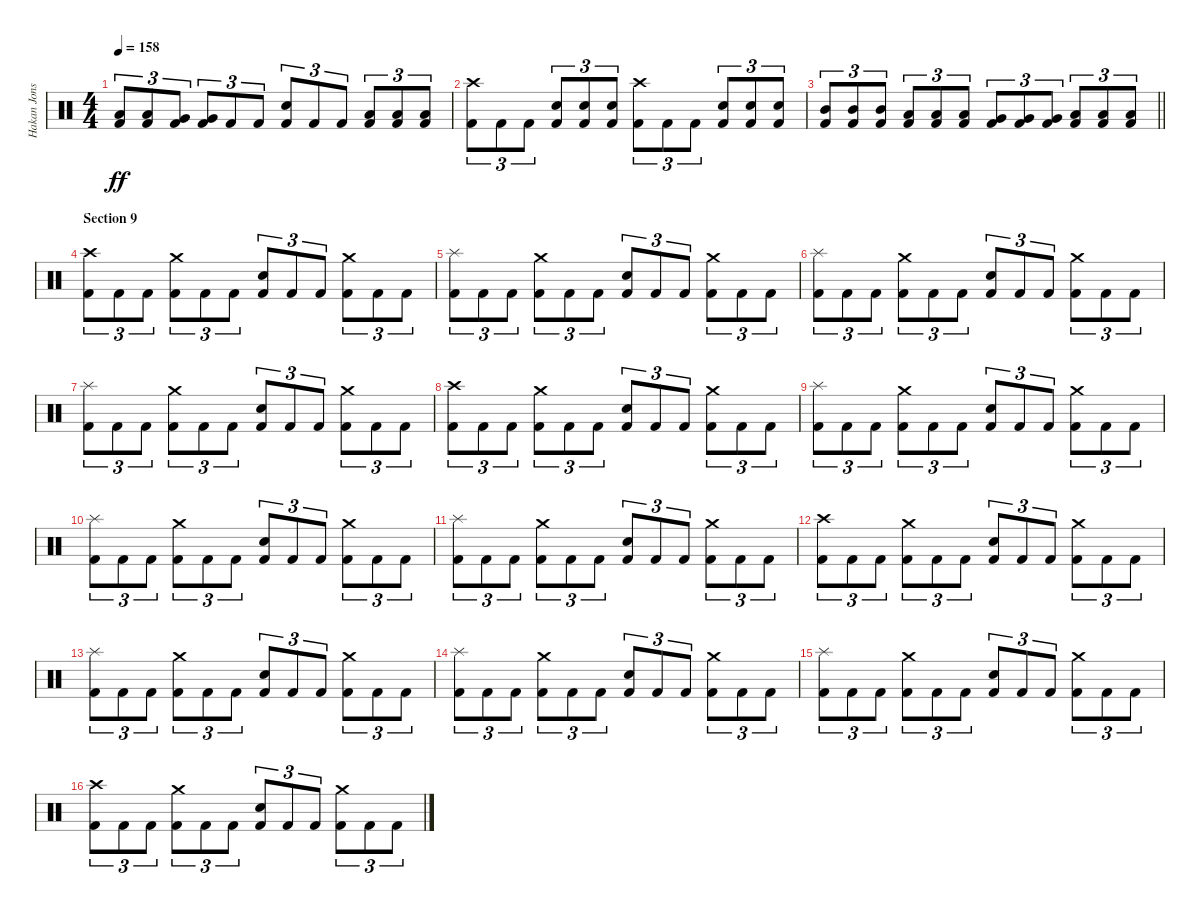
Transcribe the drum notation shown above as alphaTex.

\track ("Hakan Jonsson" "Hakan Jons") {instrument percussion}
\staff {score}
\articulation defaults
\ts (4 4)
\tempo 158
\clef neutral
\ks c
("Low Tom (hit)" "Kick (hit) 2").8{tu (3 2) dy ff} ("Low Tom (hit)" "Kick (hit) 2").8{tu (3 2)} ("Very Low Tom (hit)" "Kick (hit) 2").8{tu (3 2)} ("Very Low Tom (hit)" "Kick (hit) 2").8{tu (3 2)} "Kick (hit) 2".8{tu (3 2)} "Kick (hit) 2".8{tu (3 2)} ("Electric Snare (hit)" "Kick (hit) 2").8{tu (3 2)} "Kick (hit) 2".8{tu (3 2)} "Kick (hit) 2".8{tu (3 2)} ("Low Tom (hit)" "Kick (hit) 2").8{tu (3 2)} ("Low Tom (hit)" "Kick (hit) 2").8{tu (3 2)} ("Low Tom (hit)" "Kick (hit) 2").8{tu (3 2)} |
("Crash high (hit)" "Kick (hit) 2").8{tu (3 2)} "Kick (hit) 2".8{tu (3 2)} "Kick (hit) 2".8{tu (3 2)} ("Electric Snare (hit)" "Kick (hit) 2").8{tu (3 2)} ("Electric Snare (hit)" "Kick (hit) 2").8{tu (3 2)} ("Electric Snare (hit)" "Kick (hit) 2").8{tu (3 2)} ("Crash high (hit)" "Kick (hit) 2").8{tu (3 2)} "Kick (hit) 2".8{tu (3 2)} "Kick (hit) 2".8{tu (3 2)} ("Electric Snare (hit)" "Kick (hit) 2").8{tu (3 2)} ("Electric Snare (hit)" "Kick (hit) 2").8{tu (3 2)} ("Electric Snare (hit)" "Kick (hit) 2").8{tu (3 2)} |
\barLineRight lightlight
("Mid Tom (hit)" "Kick (hit) 2").8{tu (3 2)} ("Mid Tom (hit)" "Kick (hit) 2").8{tu (3 2)} ("Mid Tom (hit)" "Kick (hit) 2").8{tu (3 2)} ("Low Tom (hit)" "Kick (hit) 2").8{tu (3 2)} ("Low Tom (hit)" "Kick (hit) 2").8{tu (3 2)} ("Low Tom (hit)" "Kick (hit) 2").8{tu (3 2)} ("Very Low Tom (hit)" "Kick (hit) 2").8{tu (3 2)} ("Very Low Tom (hit)" "Kick (hit) 2").8{tu (3 2)} ("Very Low Tom (hit)" "Kick (hit) 2").8{tu (3 2)} ("Low Floor Tom (hit)" "Kick (hit) 2").8{tu (3 2)} ("Low Floor Tom (hit)" "Kick (hit) 2").8{tu (3 2)} ("Low Floor Tom (hit)" "Kick (hit) 2").8{tu (3 2)} |
\section ("" "Section 9")
("Crash high (hit)" "Kick (hit) 2").8{tu (3 2)} "Kick (hit) 2".8{tu (3 2)} "Kick (hit) 2".8{tu (3 2)} ("Crash medium (hit)" "Kick (hit) 2").8{tu (3 2)} "Kick (hit) 2".8{tu (3 2)} "Kick (hit) 2".8{tu (3 2)} ("Electric Snare (hit)" "Kick (hit) 2").8{tu (3 2)} "Kick (hit) 2".8{tu (3 2)} "Kick (hit) 2".8{tu (3 2)} ("Crash medium (hit)" "Kick (hit) 2").8{tu (3 2)} "Kick (hit) 2".8{tu (3 2)} "Kick (hit) 2".8{tu (3 2)} |
("Splash (hit)" "Kick (hit) 2").8{tu (3 2)} "Kick (hit) 2".8{tu (3 2)} "Kick (hit) 2".8{tu (3 2)} ("Crash medium (hit)" "Kick (hit) 2").8{tu (3 2)} "Kick (hit) 2".8{tu (3 2)} "Kick (hit) 2".8{tu (3 2)} ("Electric Snare (hit)" "Kick (hit) 2").8{tu (3 2)} "Kick (hit) 2".8{tu (3 2)} "Kick (hit) 2".8{tu (3 2)} ("Crash medium (hit)" "Kick (hit) 2").8{tu (3 2)} "Kick (hit) 2".8{tu (3 2)} "Kick (hit) 2".8{tu (3 2)} |
("Splash (hit)" "Kick (hit) 2").8{tu (3 2)} "Kick (hit) 2".8{tu (3 2)} "Kick (hit) 2".8{tu (3 2)} ("Crash medium (hit)" "Kick (hit) 2").8{tu (3 2)} "Kick (hit) 2".8{tu (3 2)} "Kick (hit) 2".8{tu (3 2)} ("Electric Snare (hit)" "Kick (hit) 2").8{tu (3 2)} "Kick (hit) 2".8{tu (3 2)} "Kick (hit) 2".8{tu (3 2)} ("Crash medium (hit)" "Kick (hit) 2").8{tu (3 2)} "Kick (hit) 2".8{tu (3 2)} "Kick (hit) 2".8{tu (3 2)} |
("Splash (hit)" "Kick (hit) 2").8{tu (3 2)} "Kick (hit) 2".8{tu (3 2)} "Kick (hit) 2".8{tu (3 2)} ("Crash medium (hit)" "Kick (hit) 2").8{tu (3 2)} "Kick (hit) 2".8{tu (3 2)} "Kick (hit) 2".8{tu (3 2)} ("Electric Snare (hit)" "Kick (hit) 2").8{tu (3 2)} "Kick (hit) 2".8{tu (3 2)} "Kick (hit) 2".8{tu (3 2)} ("Crash medium (hit)" "Kick (hit) 2").8{tu (3 2)} "Kick (hit) 2".8{tu (3 2)} "Kick (hit) 2".8{tu (3 2)} |
("Crash high (hit)" "Kick (hit) 2").8{tu (3 2)} "Kick (hit) 2".8{tu (3 2)} "Kick (hit) 2".8{tu (3 2)} ("Crash medium (hit)" "Kick (hit) 2").8{tu (3 2)} "Kick (hit) 2".8{tu (3 2)} "Kick (hit) 2".8{tu (3 2)} ("Electric Snare (hit)" "Kick (hit) 2").8{tu (3 2)} "Kick (hit) 2".8{tu (3 2)} "Kick (hit) 2".8{tu (3 2)} ("Crash medium (hit)" "Kick (hit) 2").8{tu (3 2)} "Kick (hit) 2".8{tu (3 2)} "Kick (hit) 2".8{tu (3 2)} |
("Splash (hit)" "Kick (hit) 2").8{tu (3 2)} "Kick (hit) 2".8{tu (3 2)} "Kick (hit) 2".8{tu (3 2)} ("Crash medium (hit)" "Kick (hit) 2").8{tu (3 2)} "Kick (hit) 2".8{tu (3 2)} "Kick (hit) 2".8{tu (3 2)} ("Electric Snare (hit)" "Kick (hit) 2").8{tu (3 2)} "Kick (hit) 2".8{tu (3 2)} "Kick (hit) 2".8{tu (3 2)} ("Crash medium (hit)" "Kick (hit) 2").8{tu (3 2)} "Kick (hit) 2".8{tu (3 2)} "Kick (hit) 2".8{tu (3 2)} |
("Splash (hit)" "Kick (hit) 2").8{tu (3 2)} "Kick (hit) 2".8{tu (3 2)} "Kick (hit) 2".8{tu (3 2)} ("Crash medium (hit)" "Kick (hit) 2").8{tu (3 2)} "Kick (hit) 2".8{tu (3 2)} "Kick (hit) 2".8{tu (3 2)} ("Electric Snare (hit)" "Kick (hit) 2").8{tu (3 2)} "Kick (hit) 2".8{tu (3 2)} "Kick (hit) 2".8{tu (3 2)} ("Crash medium (hit)" "Kick (hit) 2").8{tu (3 2)} "Kick (hit) 2".8{tu (3 2)} "Kick (hit) 2".8{tu (3 2)} |
("Splash (hit)" "Kick (hit) 2").8{tu (3 2)} "Kick (hit) 2".8{tu (3 2)} "Kick (hit) 2".8{tu (3 2)} ("Crash medium (hit)" "Kick (hit) 2").8{tu (3 2)} "Kick (hit) 2".8{tu (3 2)} "Kick (hit) 2".8{tu (3 2)} ("Electric Snare (hit)" "Kick (hit) 2").8{tu (3 2)} "Kick (hit) 2".8{tu (3 2)} "Kick (hit) 2".8{tu (3 2)} ("Crash medium (hit)" "Kick (hit) 2").8{tu (3 2)} "Kick (hit) 2".8{tu (3 2)} "Kick (hit) 2".8{tu (3 2)} |
("Crash high (hit)" "Kick (hit) 2").8{tu (3 2)} "Kick (hit) 2".8{tu (3 2)} "Kick (hit) 2".8{tu (3 2)} ("Crash medium (hit)" "Kick (hit) 2").8{tu (3 2)} "Kick (hit) 2".8{tu (3 2)} "Kick (hit) 2".8{tu (3 2)} ("Electric Snare (hit)" "Kick (hit) 2").8{tu (3 2)} "Kick (hit) 2".8{tu (3 2)} "Kick (hit) 2".8{tu (3 2)} ("Crash medium (hit)" "Kick (hit) 2").8{tu (3 2)} "Kick (hit) 2".8{tu (3 2)} "Kick (hit) 2".8{tu (3 2)} |
("Splash (hit)" "Kick (hit) 2").8{tu (3 2)} "Kick (hit) 2".8{tu (3 2)} "Kick (hit) 2".8{tu (3 2)} ("Crash medium (hit)" "Kick (hit) 2").8{tu (3 2)} "Kick (hit) 2".8{tu (3 2)} "Kick (hit) 2".8{tu (3 2)} ("Electric Snare (hit)" "Kick (hit) 2").8{tu (3 2)} "Kick (hit) 2".8{tu (3 2)} "Kick (hit) 2".8{tu (3 2)} ("Crash medium (hit)" "Kick (hit) 2").8{tu (3 2)} "Kick (hit) 2".8{tu (3 2)} "Kick (hit) 2".8{tu (3 2)} |
("Splash (hit)" "Kick (hit) 2").8{tu (3 2)} "Kick (hit) 2".8{tu (3 2)} "Kick (hit) 2".8{tu (3 2)} ("Crash medium (hit)" "Kick (hit) 2").8{tu (3 2)} "Kick (hit) 2".8{tu (3 2)} "Kick (hit) 2".8{tu (3 2)} ("Electric Snare (hit)" "Kick (hit) 2").8{tu (3 2)} "Kick (hit) 2".8{tu (3 2)} "Kick (hit) 2".8{tu (3 2)} ("Crash medium (hit)" "Kick (hit) 2").8{tu (3 2)} "Kick (hit) 2".8{tu (3 2)} "Kick (hit) 2".8{tu (3 2)} |
("Splash (hit)" "Kick (hit) 2").8{tu (3 2)} "Kick (hit) 2".8{tu (3 2)} "Kick (hit) 2".8{tu (3 2)} ("Crash medium (hit)" "Kick (hit) 2").8{tu (3 2)} "Kick (hit) 2".8{tu (3 2)} "Kick (hit) 2".8{tu (3 2)} ("Electric Snare (hit)" "Kick (hit) 2").8{tu (3 2)} "Kick (hit) 2".8{tu (3 2)} "Kick (hit) 2".8{tu (3 2)} ("Crash medium (hit)" "Kick (hit) 2").8{tu (3 2)} "Kick (hit) 2".8{tu (3 2)} "Kick (hit) 2".8{tu (3 2)} |
("Crash high (hit)" "Kick (hit) 2").8{tu (3 2)} "Kick (hit) 2".8{tu (3 2)} "Kick (hit) 2".8{tu (3 2)} ("Crash medium (hit)" "Kick (hit) 2").8{tu (3 2)} "Kick (hit) 2".8{tu (3 2)} "Kick (hit) 2".8{tu (3 2)} ("Electric Snare (hit)" "Kick (hit) 2").8{tu (3 2)} "Kick (hit) 2".8{tu (3 2)} "Kick (hit) 2".8{tu (3 2)} ("Crash medium (hit)" "Kick (hit) 2").8{tu (3 2)} "Kick (hit) 2".8{tu (3 2)} "Kick (hit) 2".8{tu (3 2)}
